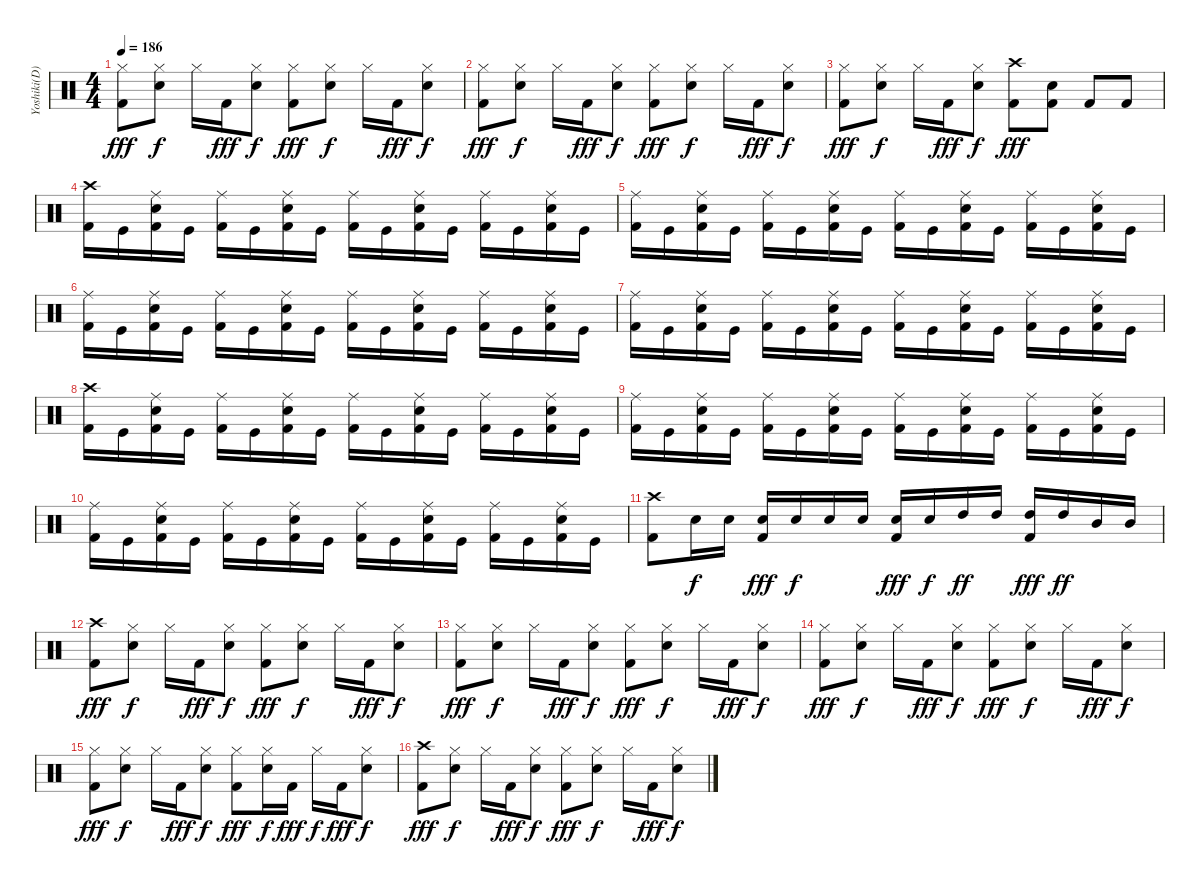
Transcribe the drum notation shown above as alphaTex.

\track ("Yoshiki(D)" "Yoshiki(D)") {instrument percussion}
\staff {score}
\articulation defaults
\ts (4 4)
\tempo 186
\clef neutral
\ks c
("Hi-Hat (closed)" "Kick (hit) 2").8{dy fff} ("Hi-Hat (closed)" "Electric Snare (hit)").8{dy f} "Hi-Hat (closed)".16 "Kick (hit) 2".16{dy fff} ("Hi-Hat (closed)" "Electric Snare (hit)").8{dy f} ("Hi-Hat (closed)" "Kick (hit) 2").8{dy fff} ("Hi-Hat (closed)" "Electric Snare (hit)").8{dy f} "Hi-Hat (closed)".16 "Kick (hit) 2".16{dy fff} ("Hi-Hat (closed)" "Electric Snare (hit)").8{dy f} |
("Hi-Hat (closed)" "Kick (hit) 2").8{dy fff} ("Hi-Hat (closed)" "Electric Snare (hit)").8{dy f} "Hi-Hat (closed)".16 "Kick (hit) 2".16{dy fff} ("Hi-Hat (closed)" "Electric Snare (hit)").8{dy f} ("Hi-Hat (closed)" "Kick (hit) 2").8{dy fff} ("Hi-Hat (closed)" "Electric Snare (hit)").8{dy f} "Hi-Hat (closed)".16 "Kick (hit) 2".16{dy fff} ("Hi-Hat (closed)" "Electric Snare (hit)").8{dy f} |
("Hi-Hat (closed)" "Kick (hit) 2").8{dy fff} ("Hi-Hat (closed)" "Electric Snare (hit)").8{dy f} "Hi-Hat (closed)".16 "Kick (hit) 2".16{dy fff} ("Hi-Hat (closed)" "Electric Snare (hit)").8{dy f} ("Crash high (hit)" "Kick (hit) 2").8{dy fff} ("Electric Snare (hit)" "Kick (hit) 2").8 "Kick (hit) 2".8 "Kick (hit) 2".8 |
("Crash high (hit)" "Kick (hit) 2").16 "Kick (hit)".16 ("Ride (middle)" "Electric Snare (hit)" "Kick (hit) 2").16 "Kick (hit)".16 ("Ride (middle)" "Kick (hit) 2").16 "Kick (hit)".16 ("Ride (middle)" "Electric Snare (hit)" "Kick (hit) 2").16 "Kick (hit)".16 ("Ride (middle)" "Kick (hit) 2").16 "Kick (hit)".16 ("Ride (middle)" "Electric Snare (hit)" "Kick (hit) 2").16 "Kick (hit)".16 ("Ride (middle)" "Kick (hit) 2").16 "Kick (hit)".16 ("Ride (middle)" "Electric Snare (hit)" "Kick (hit) 2").16 "Kick (hit)".16 |
("Ride (middle)" "Kick (hit) 2").16 "Kick (hit)".16 ("Ride (middle)" "Electric Snare (hit)" "Kick (hit) 2").16 "Kick (hit)".16 ("Ride (middle)" "Kick (hit) 2").16 "Kick (hit)".16 ("Ride (middle)" "Electric Snare (hit)" "Kick (hit) 2").16 "Kick (hit)".16 ("Ride (middle)" "Kick (hit) 2").16 "Kick (hit)".16 ("Ride (middle)" "Electric Snare (hit)" "Kick (hit) 2").16 "Kick (hit)".16 ("Ride (middle)" "Kick (hit) 2").16 "Kick (hit)".16 ("Ride (middle)" "Electric Snare (hit)" "Kick (hit) 2").16 "Kick (hit)".16 |
("Ride (middle)" "Kick (hit) 2").16 "Kick (hit)".16 ("Ride (middle)" "Electric Snare (hit)" "Kick (hit) 2").16 "Kick (hit)".16 ("Ride (middle)" "Kick (hit) 2").16 "Kick (hit)".16 ("Ride (middle)" "Electric Snare (hit)" "Kick (hit) 2").16 "Kick (hit)".16 ("Ride (middle)" "Kick (hit) 2").16 "Kick (hit)".16 ("Ride (middle)" "Electric Snare (hit)" "Kick (hit) 2").16 "Kick (hit)".16 ("Ride (middle)" "Kick (hit) 2").16 "Kick (hit)".16 ("Ride (middle)" "Electric Snare (hit)" "Kick (hit) 2").16 "Kick (hit)".16 |
("Ride (middle)" "Kick (hit) 2").16 "Kick (hit)".16 ("Ride (middle)" "Electric Snare (hit)" "Kick (hit) 2").16 "Kick (hit)".16 ("Ride (middle)" "Kick (hit) 2").16 "Kick (hit)".16 ("Ride (middle)" "Electric Snare (hit)" "Kick (hit) 2").16 "Kick (hit)".16 ("Ride (middle)" "Kick (hit) 2").16 "Kick (hit)".16 ("Ride (middle)" "Electric Snare (hit)" "Kick (hit) 2").16 "Kick (hit)".16 ("Ride (middle)" "Kick (hit) 2").16 "Kick (hit)".16 ("Ride (middle)" "Electric Snare (hit)" "Kick (hit) 2").16 "Kick (hit)".16 |
("Crash high (hit)" "Kick (hit) 2").16 "Kick (hit)".16 ("Ride (middle)" "Electric Snare (hit)" "Kick (hit) 2").16 "Kick (hit)".16 ("Ride (middle)" "Kick (hit) 2").16 "Kick (hit)".16 ("Ride (middle)" "Electric Snare (hit)" "Kick (hit) 2").16 "Kick (hit)".16 ("Ride (middle)" "Kick (hit) 2").16 "Kick (hit)".16 ("Ride (middle)" "Electric Snare (hit)" "Kick (hit) 2").16 "Kick (hit)".16 ("Ride (middle)" "Kick (hit) 2").16 "Kick (hit)".16 ("Ride (middle)" "Electric Snare (hit)" "Kick (hit) 2").16 "Kick (hit)".16 |
("Ride (middle)" "Kick (hit) 2").16 "Kick (hit)".16 ("Ride (middle)" "Electric Snare (hit)" "Kick (hit) 2").16 "Kick (hit)".16 ("Ride (middle)" "Kick (hit) 2").16 "Kick (hit)".16 ("Ride (middle)" "Electric Snare (hit)" "Kick (hit) 2").16 "Kick (hit)".16 ("Ride (middle)" "Kick (hit) 2").16 "Kick (hit)".16 ("Ride (middle)" "Electric Snare (hit)" "Kick (hit) 2").16 "Kick (hit)".16 ("Ride (middle)" "Kick (hit) 2").16 "Kick (hit)".16 ("Ride (middle)" "Electric Snare (hit)" "Kick (hit) 2").16 "Kick (hit)".16 |
("Ride (middle)" "Kick (hit) 2").16 "Kick (hit)".16 ("Ride (middle)" "Electric Snare (hit)" "Kick (hit) 2").16 "Kick (hit)".16 ("Ride (middle)" "Kick (hit) 2").16 "Kick (hit)".16 ("Ride (middle)" "Electric Snare (hit)" "Kick (hit) 2").16 "Kick (hit)".16 ("Ride (middle)" "Kick (hit) 2").16 "Kick (hit)".16 ("Ride (middle)" "Electric Snare (hit)" "Kick (hit) 2").16 "Kick (hit)".16 ("Ride (middle)" "Kick (hit) 2").16 "Kick (hit)".16 ("Ride (middle)" "Electric Snare (hit)" "Kick (hit) 2").16 "Kick (hit)".16 |
("Crash high (hit)" "Kick (hit) 2").8 "Electric Snare (hit)".16{dy f} "Electric Snare (hit)".16 ("Electric Snare (hit)" "Kick (hit) 2").16{dy fff} "Electric Snare (hit)".16{dy f} "Electric Snare (hit)".16 "Electric Snare (hit)".16 ("Electric Snare (hit)" "Kick (hit) 2").16{dy fff} "Electric Snare (hit)".16{dy f} "High Tom (hit)".16{dy ff} "High Tom (hit)".16 ("High Tom (hit)" "Kick (hit) 2").16{dy fff} "High Tom (hit)".16{dy ff} "Mid Tom (hit)".16 "Mid Tom (hit)".16 |
("Crash high (hit)" "Kick (hit) 2").8{dy fff} ("Hi-Hat (closed)" "Electric Snare (hit)").8{dy f} "Hi-Hat (closed)".16 "Kick (hit) 2".16{dy fff} ("Hi-Hat (closed)" "Electric Snare (hit)").8{dy f} ("Hi-Hat (closed)" "Kick (hit) 2").8{dy fff} ("Hi-Hat (closed)" "Electric Snare (hit)").8{dy f} "Hi-Hat (closed)".16 "Kick (hit) 2".16{dy fff} ("Hi-Hat (closed)" "Electric Snare (hit)").8{dy f} |
("Hi-Hat (closed)" "Kick (hit) 2").8{dy fff} ("Hi-Hat (closed)" "Electric Snare (hit)").8{dy f} "Hi-Hat (closed)".16 "Kick (hit) 2".16{dy fff} ("Hi-Hat (closed)" "Electric Snare (hit)").8{dy f} ("Hi-Hat (closed)" "Kick (hit) 2").8{dy fff} ("Hi-Hat (closed)" "Electric Snare (hit)").8{dy f} "Hi-Hat (closed)".16 "Kick (hit) 2".16{dy fff} ("Hi-Hat (closed)" "Electric Snare (hit)").8{dy f} |
("Hi-Hat (closed)" "Kick (hit) 2").8{dy fff} ("Hi-Hat (closed)" "Electric Snare (hit)").8{dy f} "Hi-Hat (closed)".16 "Kick (hit) 2".16{dy fff} ("Hi-Hat (closed)" "Electric Snare (hit)").8{dy f} ("Hi-Hat (closed)" "Kick (hit) 2").8{dy fff} ("Hi-Hat (closed)" "Electric Snare (hit)").8{dy f} "Hi-Hat (closed)".16 "Kick (hit) 2".16{dy fff} ("Hi-Hat (closed)" "Electric Snare (hit)").8{dy f} |
("Hi-Hat (closed)" "Kick (hit) 2").8{dy fff} ("Hi-Hat (closed)" "Electric Snare (hit)").8{dy f} "Hi-Hat (closed)".16 "Kick (hit) 2".16{dy fff} ("Hi-Hat (closed)" "Electric Snare (hit)").8{dy f} ("Hi-Hat (closed)" "Kick (hit) 2").8{dy fff} ("Hi-Hat (closed)" "Electric Snare (hit)").16{dy f} "Kick (hit) 2".16{dy fff} "Hi-Hat (closed)".16{dy f} "Kick (hit) 2".16{dy fff} ("Hi-Hat (closed)" "Electric Snare (hit)").8{dy f} |
("Crash high (hit)" "Kick (hit) 2").8{dy fff} ("Hi-Hat (closed)" "Electric Snare (hit)").8{dy f} "Hi-Hat (closed)".16 "Kick (hit) 2".16{dy fff} ("Hi-Hat (closed)" "Electric Snare (hit)").8{dy f} ("Hi-Hat (closed)" "Kick (hit) 2").8{dy fff} ("Hi-Hat (closed)" "Electric Snare (hit)").8{dy f} "Hi-Hat (closed)".16 "Kick (hit) 2".16{dy fff} ("Hi-Hat (closed)" "Electric Snare (hit)").8{dy f}
